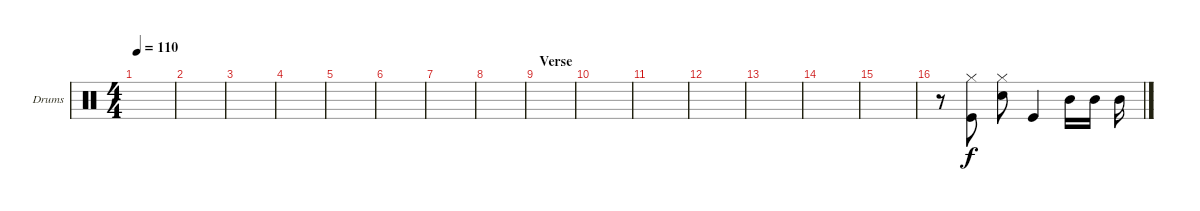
\defaultSystemsLayout 4
\bracketExtendMode groupsimilarinstruments
\firstSystemTrackNameOrientation horizontal
\otherSystemsTrackNameOrientation horizontal
\track ("Drum" "Drums") {instrument percussion}
\staff {score}
\articulation defaults
\ts (4 4)
\tempo 110
\clef neutral
\scale
0.474178
\ks c
|
\scale
0.262911 |
\scale
0.262911 |
\scale
0.333333 |
\scale
0.333333 |
\scale
0.333333 |
\scale
0.333333 |
\scale
0.333333 |
\section ("" "Verse")
\scale
0.333333 |
\scale
0.333333 |
\scale
0.333333 |
\scale
0.333333 |
\scale
0.333333 |
\scale
0.333333 |
\scale
0.333333 |
\scale
0.333333 r.8 ("Hi-Hat (closed)" "Kick (hit)").8 ("Hi-Hat (closed)" "Snare (hit) 2").8 "Kick (hit)".4 "Mid Tom (hit)".16 "Mid Tom (hit)".16 "Mid Tom (hit)".16
